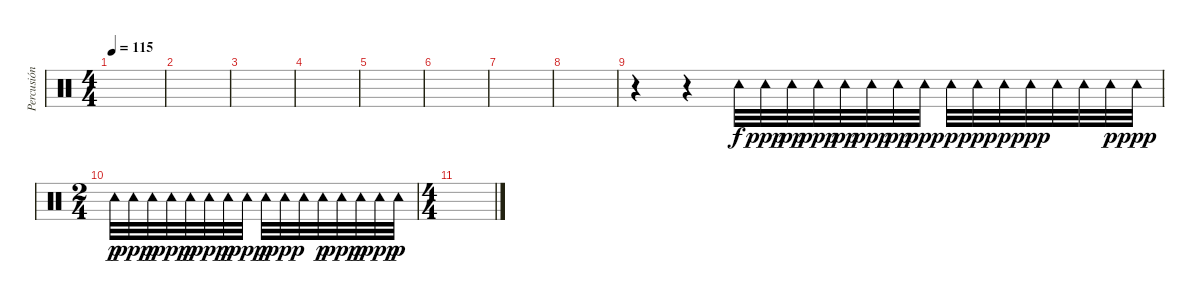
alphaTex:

\track ("Percusión" "Percusión") {instrument percussion}
\staff {score}
\articulation defaults
\ts (4 4)
\tempo 115
\clef neutral
\ks c
|
|
|
|
|
|
|
|
r.4 r.4 "Tambourine (hit)".32 "Tambourine (hit)".32{dy ppp} "Tambourine (hit)".32{dy pp} "Tambourine (hit)".32{dy ppp} "Tambourine (hit)".32{dy pp} "Tambourine (hit)".32{dy ppp} "Tambourine (hit)".32{dy pp} "Tambourine (hit)".32{dy ppp} "Tambourine (hit)".32{dy p} "Tambourine (hit)".32{dy ppp} "Tambourine (hit)".32{dy p} "Tambourine (hit)".32{dy ppp} "Tambourine (hit)".32 "Tambourine (hit)".32 "Tambourine (hit)".32{dy p} "Tambourine (hit)".32{dy ppp} |
\ts (2 4)
"Tambourine (hit)".32{dy p} "Tambourine (hit)".32{dy ppp} "Tambourine (hit)".32{dy p} "Tambourine (hit)".32{dy ppp} "Tambourine (hit)".32{dy p} "Tambourine (hit)".32{dy ppp} "Tambourine (hit)".32{dy p} "Tambourine (hit)".32{dy ppp} "Tambourine (hit)".32{dy p} "Tambourine (hit)".32{dy ppp} "Tambourine (hit)".32 "Tambourine (hit)".32{dy p} "Tambourine (hit)".32{dy ppp} "Tambourine (hit)".32{dy p} "Tambourine (hit)".32{dy ppp} "Tambourine (hit)".32{dy p} |
\ts (4 4)
